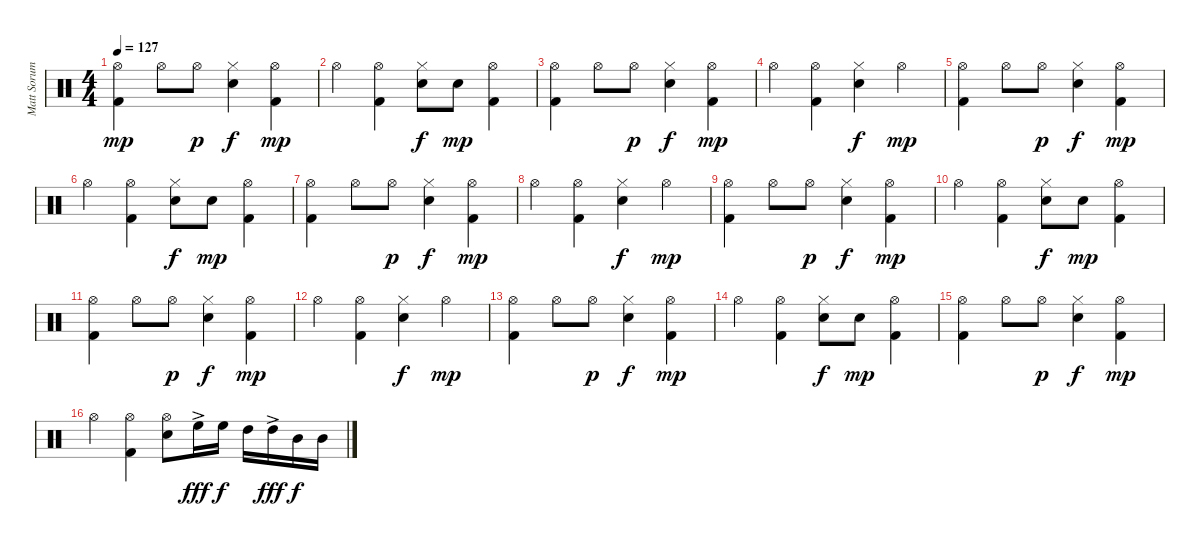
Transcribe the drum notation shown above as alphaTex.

\track ("Matt Sorum" "Matt Sorum") {instrument percussion}
\staff {score}
\articulation defaults
\ts (4 4)
\tempo 127
\clef neutral
\ks c
("Kick (hit) 2" "Hi-Hat (open)").4{dy mp} "Hi-Hat (open)".8 "Hi-Hat (open)".8{dy p} ("Snare (hit) 2" "Hi-Hat (closed)").4{dy f} ("Kick (hit) 2" "Hi-Hat (open)").4{dy mp} |
"Hi-Hat (open)".4 ("Kick (hit) 2" "Hi-Hat (open)").4 ("Snare (hit) 2" "Hi-Hat (closed)").8{dy f} "Snare (hit) 2".8{dy mp} ("Kick (hit) 2" "Hi-Hat (open)").4 |
("Kick (hit) 2" "Hi-Hat (open)").4 "Hi-Hat (open)".8 "Hi-Hat (open)".8{dy p} ("Snare (hit) 2" "Hi-Hat (closed)").4{dy f} ("Kick (hit) 2" "Hi-Hat (open)").4{dy mp} |
"Hi-Hat (open)".4 ("Kick (hit) 2" "Hi-Hat (open)").4 ("Snare (hit) 2" "Hi-Hat (closed)").4{dy f} "Hi-Hat (open)".4{dy mp} |
("Kick (hit) 2" "Hi-Hat (open)").4 "Hi-Hat (open)".8 "Hi-Hat (open)".8{dy p} ("Snare (hit) 2" "Hi-Hat (closed)").4{dy f} ("Kick (hit) 2" "Hi-Hat (open)").4{dy mp} |
"Hi-Hat (open)".4 ("Kick (hit) 2" "Hi-Hat (open)").4 ("Snare (hit) 2" "Hi-Hat (closed)").8{dy f} "Snare (hit) 2".8{dy mp} ("Kick (hit) 2" "Hi-Hat (open)").4 |
("Kick (hit) 2" "Hi-Hat (open)").4 "Hi-Hat (open)".8 "Hi-Hat (open)".8{dy p} ("Snare (hit) 2" "Hi-Hat (closed)").4{dy f} ("Kick (hit) 2" "Hi-Hat (open)").4{dy mp} |
"Hi-Hat (open)".4 ("Kick (hit) 2" "Hi-Hat (open)").4 ("Snare (hit) 2" "Hi-Hat (closed)").4{dy f} "Hi-Hat (open)".4{dy mp} |
("Kick (hit) 2" "Hi-Hat (open)").4 "Hi-Hat (open)".8 "Hi-Hat (open)".8{dy p} ("Snare (hit) 2" "Hi-Hat (closed)").4{dy f} ("Kick (hit) 2" "Hi-Hat (open)").4{dy mp} |
"Hi-Hat (open)".4 ("Kick (hit) 2" "Hi-Hat (open)").4 ("Snare (hit) 2" "Hi-Hat (closed)").8{dy f} "Snare (hit) 2".8{dy mp} ("Kick (hit) 2" "Hi-Hat (open)").4 |
("Kick (hit) 2" "Hi-Hat (open)").4 "Hi-Hat (open)".8 "Hi-Hat (open)".8{dy p} ("Snare (hit) 2" "Hi-Hat (closed)").4{dy f} ("Kick (hit) 2" "Hi-Hat (open)").4{dy mp} |
"Hi-Hat (open)".4 ("Kick (hit) 2" "Hi-Hat (open)").4 ("Snare (hit) 2" "Hi-Hat (closed)").4{dy f} "Hi-Hat (open)".4{dy mp} |
("Kick (hit) 2" "Hi-Hat (open)").4 "Hi-Hat (open)".8 "Hi-Hat (open)".8{dy p} ("Snare (hit) 2" "Hi-Hat (closed)").4{dy f} ("Kick (hit) 2" "Hi-Hat (open)").4{dy mp} |
"Hi-Hat (open)".4 ("Kick (hit) 2" "Hi-Hat (open)").4 ("Snare (hit) 2" "Hi-Hat (closed)").8{dy f} "Snare (hit) 2".8{dy mp} ("Kick (hit) 2" "Hi-Hat (open)").4 |
("Kick (hit) 2" "Hi-Hat (open)").4 "Hi-Hat (open)".8 "Hi-Hat (open)".8{dy p} ("Snare (hit) 2" "Hi-Hat (closed)").4{dy f} ("Kick (hit) 2" "Hi-Hat (open)").4{dy mp} |
"Hi-Hat (open)".4 ("Kick (hit) 2" "Hi-Hat (open)").4 ("Snare (hit) 2" "Hi-Hat (open)").8 "High Floor Tom (hit)"{ac}.16{dy fff} "High Floor Tom (hit)".16{dy f} "High Tom (hit)".16 "High Tom (hit)"{ac}.16{dy fff} "Mid Tom (hit)".16{dy f} "Mid Tom (hit)".16
